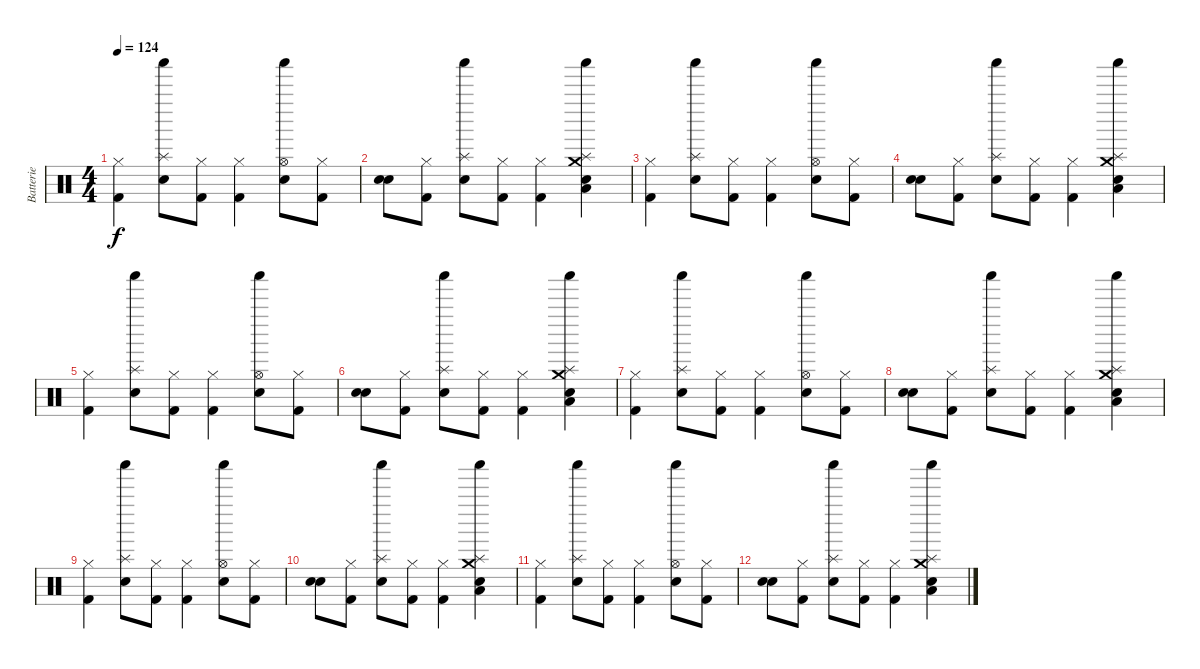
\track ("Batterie" "Batterie") {instrument percussion}
\staff {score}
\articulation defaults
\ts (4 4)
\tempo 124
\clef neutral
\ks c
("Hi-Hat (closed)" "Kick (hit) 2").4{dy f} ("Shaker (hit)" "Splash (hit)" "Snare (hit) 2").8 ("Hi-Hat (closed)" "Kick (hit) 2").8 ("Hi-Hat (closed)" "Kick (hit) 2").4 ("Shaker (hit)" "Hi-Hat (open)" "Snare (hit) 2").8 ("Hi-Hat (closed)" "Kick (hit) 2").8 |
("Snare (hit)" "Snare (hit)").8 ("Hi-Hat (closed)" "Kick (hit) 2").8 ("Shaker (hit)" "Splash (hit)" "Snare (hit) 2").8 ("Hi-Hat (closed)" "Kick (hit) 2").8 ("Hi-Hat (closed)" "Kick (hit) 2").4 ("Shaker (hit)" "Splash (hit)" "Snare (hit) 2" "Crash medium (hit)" "Low Tom (hit)").4 |
("Hi-Hat (closed)" "Kick (hit) 2").4 ("Shaker (hit)" "Splash (hit)" "Snare (hit) 2").8 ("Hi-Hat (closed)" "Kick (hit) 2").8 ("Hi-Hat (closed)" "Kick (hit) 2").4 ("Shaker (hit)" "Hi-Hat (open)" "Snare (hit) 2").8 ("Hi-Hat (closed)" "Kick (hit) 2").8 |
("Snare (hit)" "Snare (hit)").8 ("Hi-Hat (closed)" "Kick (hit) 2").8 ("Shaker (hit)" "Splash (hit)" "Snare (hit) 2").8 ("Hi-Hat (closed)" "Kick (hit) 2").8 ("Hi-Hat (closed)" "Kick (hit) 2").4 ("Shaker (hit)" "Splash (hit)" "Snare (hit) 2" "Crash medium (hit)" "Low Tom (hit)").4 |
("Hi-Hat (closed)" "Kick (hit) 2").4 ("Shaker (hit)" "Splash (hit)" "Snare (hit) 2").8 ("Hi-Hat (closed)" "Kick (hit) 2").8 ("Hi-Hat (closed)" "Kick (hit) 2").4 ("Shaker (hit)" "Hi-Hat (open)" "Snare (hit) 2").8 ("Hi-Hat (closed)" "Kick (hit) 2").8 |
("Snare (hit)" "Snare (hit)").8 ("Hi-Hat (closed)" "Kick (hit) 2").8 ("Shaker (hit)" "Splash (hit)" "Snare (hit) 2").8 ("Hi-Hat (closed)" "Kick (hit) 2").8 ("Hi-Hat (closed)" "Kick (hit) 2").4 ("Shaker (hit)" "Splash (hit)" "Snare (hit) 2" "Crash medium (hit)" "Low Tom (hit)").4 |
("Hi-Hat (closed)" "Kick (hit) 2").4 ("Shaker (hit)" "Splash (hit)" "Snare (hit) 2").8 ("Hi-Hat (closed)" "Kick (hit) 2").8 ("Hi-Hat (closed)" "Kick (hit) 2").4 ("Shaker (hit)" "Hi-Hat (open)" "Snare (hit) 2").8 ("Hi-Hat (closed)" "Kick (hit) 2").8 |
("Snare (hit)" "Snare (hit)").8 ("Hi-Hat (closed)" "Kick (hit) 2").8 ("Shaker (hit)" "Splash (hit)" "Snare (hit) 2").8 ("Hi-Hat (closed)" "Kick (hit) 2").8 ("Hi-Hat (closed)" "Kick (hit) 2").4 ("Shaker (hit)" "Splash (hit)" "Snare (hit) 2" "Crash medium (hit)" "Low Tom (hit)").4 |
("Hi-Hat (closed)" "Kick (hit) 2").4 ("Shaker (hit)" "Splash (hit)" "Snare (hit) 2").8 ("Hi-Hat (closed)" "Kick (hit) 2").8 ("Hi-Hat (closed)" "Kick (hit) 2").4 ("Shaker (hit)" "Hi-Hat (open)" "Snare (hit) 2").8 ("Hi-Hat (closed)" "Kick (hit) 2").8 |
("Snare (hit)" "Snare (hit)").8 ("Hi-Hat (closed)" "Kick (hit) 2").8 ("Shaker (hit)" "Splash (hit)" "Snare (hit) 2").8 ("Hi-Hat (closed)" "Kick (hit) 2").8 ("Hi-Hat (closed)" "Kick (hit) 2").4 ("Shaker (hit)" "Splash (hit)" "Snare (hit) 2" "Crash medium (hit)" "Low Tom (hit)").4 |
("Hi-Hat (closed)" "Kick (hit) 2").4 ("Shaker (hit)" "Splash (hit)" "Snare (hit) 2").8 ("Hi-Hat (closed)" "Kick (hit) 2").8 ("Hi-Hat (closed)" "Kick (hit) 2").4 ("Shaker (hit)" "Hi-Hat (open)" "Snare (hit) 2").8 ("Hi-Hat (closed)" "Kick (hit) 2").8 |
("Snare (hit)" "Snare (hit)").8 ("Hi-Hat (closed)" "Kick (hit) 2").8 ("Shaker (hit)" "Splash (hit)" "Snare (hit) 2").8 ("Hi-Hat (closed)" "Kick (hit) 2").8 ("Hi-Hat (closed)" "Kick (hit) 2").4 ("Shaker (hit)" "Splash (hit)" "Snare (hit) 2" "Crash medium (hit)" "Low Tom (hit)").4
